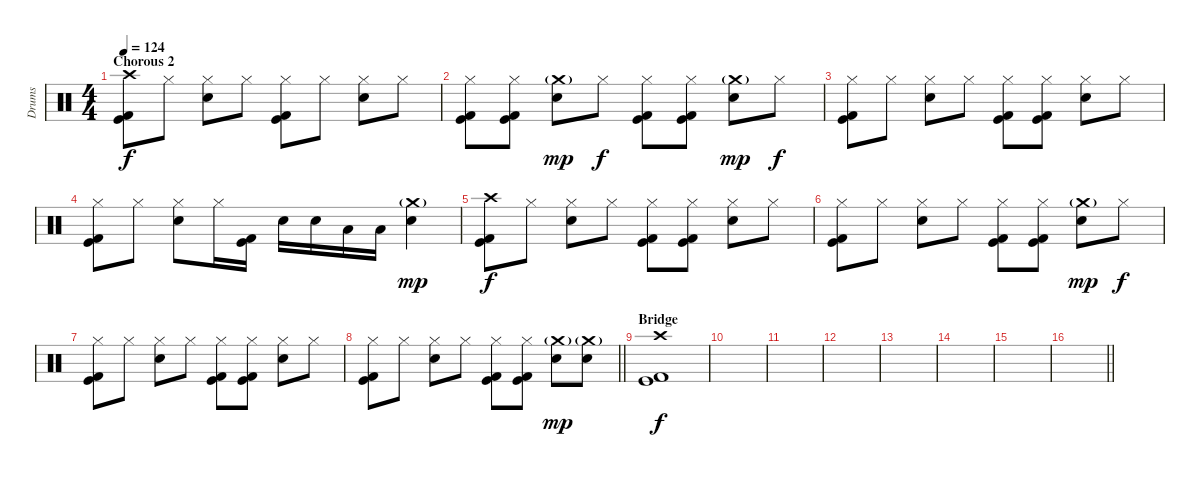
\track ("Drums" "Drums") {instrument percussion}
\staff {score}
\articulation defaults
\ts (4 4)
\section ("" "Chorous 2")
\tempo 124
\clef neutral
\ks c
("Crash high (hit)" "Kick (hit)" "Kick (hit) 2").8{dy f} "Hi-Hat (closed)".8 ("Hi-Hat (closed)" "Electric Snare (hit)").8 "Hi-Hat (closed)".8 ("Hi-Hat (closed)" "Kick (hit)" "Kick (hit) 2").8 "Hi-Hat (closed)".8 ("Hi-Hat (closed)" "Electric Snare (hit)").8 "Hi-Hat (closed)".8 |
("Hi-Hat (closed)" "Kick (hit)" "Kick (hit) 2").8 ("Hi-Hat (closed)" "Kick (hit)" "Kick (hit) 2").8 ("Crash medium (hit)"{g} "Electric Snare (hit)").8{dy mp} "Hi-Hat (closed)".8{dy f} ("Hi-Hat (closed)" "Kick (hit)" "Kick (hit) 2").8 ("Hi-Hat (closed)" "Kick (hit)" "Kick (hit) 2").8 ("Crash medium (hit)"{g} "Electric Snare (hit)").8{dy mp} "Hi-Hat (closed)".8{dy f} |
("Hi-Hat (closed)" "Kick (hit)" "Kick (hit) 2").8 "Hi-Hat (closed)".8 ("Hi-Hat (closed)" "Electric Snare (hit)").8 "Hi-Hat (closed)".8 ("Hi-Hat (closed)" "Kick (hit)" "Kick (hit) 2").8 ("Hi-Hat (closed)" "Kick (hit)" "Kick (hit) 2").8 ("Hi-Hat (closed)" "Electric Snare (hit)").8 "Hi-Hat (closed)".8 |
("Hi-Hat (closed)" "Kick (hit)" "Kick (hit) 2").8 "Hi-Hat (closed)".8 ("Hi-Hat (closed)" "Electric Snare (hit)").8 "Hi-Hat (closed)".16 ("Kick (hit)" "Kick (hit) 2").16 "Electric Snare (hit)".16 "Electric Snare (hit)".16 "Low Tom (hit)".16 "Low Tom (hit)".16 ("Crash medium (hit)"{g} "Electric Snare (hit)").4{dy mp} |
("Crash high (hit)" "Kick (hit)" "Kick (hit) 2").8{dy f} "Hi-Hat (closed)".8 ("Hi-Hat (closed)" "Electric Snare (hit)").8 "Hi-Hat (closed)".8 ("Hi-Hat (closed)" "Kick (hit)" "Kick (hit) 2").8 ("Hi-Hat (closed)" "Kick (hit)" "Kick (hit) 2").8 ("Hi-Hat (closed)" "Electric Snare (hit)").8 "Hi-Hat (closed)".8 |
("Hi-Hat (closed)" "Kick (hit)" "Kick (hit) 2").8 "Hi-Hat (closed)".8 ("Hi-Hat (closed)" "Electric Snare (hit)").8 "Hi-Hat (closed)".8 ("Hi-Hat (closed)" "Kick (hit)" "Kick (hit) 2").8 ("Hi-Hat (closed)" "Kick (hit)" "Kick (hit) 2").8 ("Crash medium (hit)"{g} "Electric Snare (hit)").8{dy mp} "Hi-Hat (closed)".8{dy f} |
("Hi-Hat (closed)" "Kick (hit)" "Kick (hit) 2").8 "Hi-Hat (closed)".8 ("Hi-Hat (closed)" "Electric Snare (hit)").8 "Hi-Hat (closed)".8 ("Hi-Hat (closed)" "Kick (hit)" "Kick (hit) 2").8 ("Hi-Hat (closed)" "Kick (hit)" "Kick (hit) 2").8 ("Hi-Hat (closed)" "Electric Snare (hit)").8 "Hi-Hat (closed)".8 |
\barLineRight lightlight
("Hi-Hat (closed)" "Kick (hit)" "Kick (hit) 2").8 "Hi-Hat (closed)".8 ("Hi-Hat (closed)" "Electric Snare (hit)").8 "Hi-Hat (closed)".8 ("Hi-Hat (closed)" "Kick (hit)" "Kick (hit) 2").8 ("Hi-Hat (closed)" "Kick (hit)" "Kick (hit) 2").8 ("Crash medium (hit)"{g} "Electric Snare (hit)").8{dy mp} ("Crash medium (hit)"{g} "Electric Snare (hit)").8 |
\section ("" "Bridge")
("Crash high (hit)" "Kick (hit)" "Kick (hit) 2").1{dy f} |
|
|
|
|
|
|
\barLineRight lightlight
